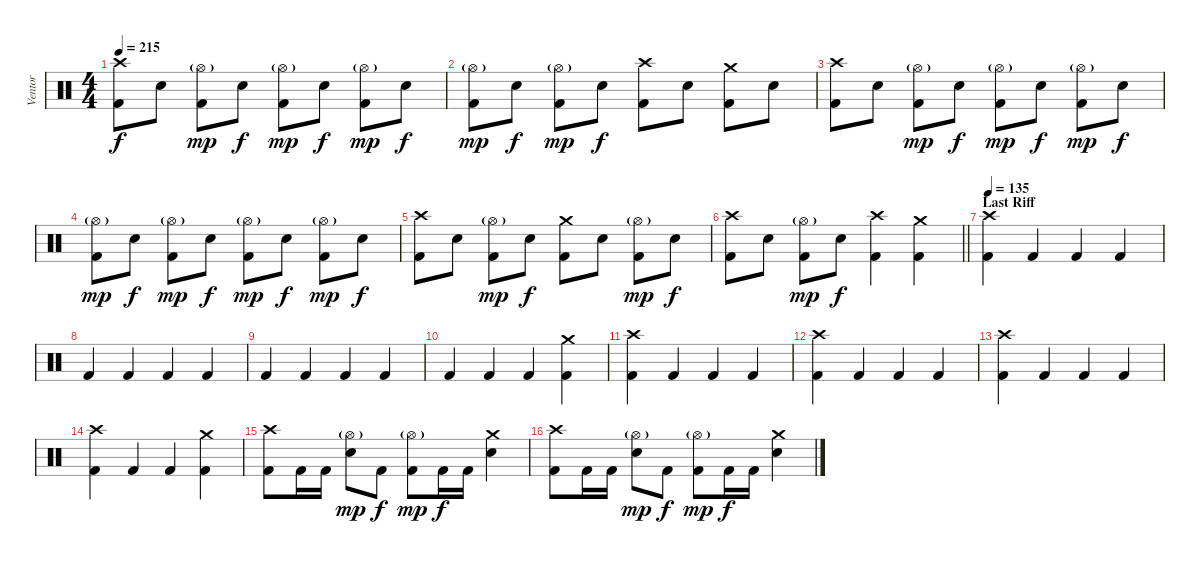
\track ("Ventor" "Ventor") {instrument percussion}
\staff {score}
\articulation defaults
\ts (4 4)
\tempo 215
\clef neutral
\ks c
("Crash high (hit)" "Kick (hit) 2").8{dy f} "Electric Snare (hit)".8 ("Hi-Hat (open)"{g} "Kick (hit) 2").8{dy mp} "Electric Snare (hit)".8{dy f} ("Hi-Hat (open)"{g} "Kick (hit) 2").8{dy mp} "Electric Snare (hit)".8{dy f} ("Hi-Hat (open)"{g} "Kick (hit) 2").8{dy mp} "Electric Snare (hit)".8{dy f} |
("Hi-Hat (open)"{g} "Kick (hit) 2").8{dy mp} "Electric Snare (hit)".8{dy f} ("Hi-Hat (open)"{g} "Kick (hit) 2").8{dy mp} "Electric Snare (hit)".8{dy f} ("Crash high (hit)" "Kick (hit) 2").8 "Electric Snare (hit)".8 ("Crash medium (hit)" "Kick (hit) 2").8 "Electric Snare (hit)".8 |
("Crash high (hit)" "Kick (hit) 2").8 "Electric Snare (hit)".8 ("Hi-Hat (open)"{g} "Kick (hit) 2").8{dy mp} "Electric Snare (hit)".8{dy f} ("Hi-Hat (open)"{g} "Kick (hit) 2").8{dy mp} "Electric Snare (hit)".8{dy f} ("Hi-Hat (open)"{g} "Kick (hit) 2").8{dy mp} "Electric Snare (hit)".8{dy f} |
("Hi-Hat (open)"{g} "Kick (hit) 2").8{dy mp} "Electric Snare (hit)".8{dy f} ("Hi-Hat (open)"{g} "Kick (hit) 2").8{dy mp} "Electric Snare (hit)".8{dy f} ("Hi-Hat (open)"{g} "Kick (hit) 2").8{dy mp} "Electric Snare (hit)".8{dy f} ("Hi-Hat (open)"{g} "Kick (hit) 2").8{dy mp} "Electric Snare (hit)".8{dy f} |
("Crash high (hit)" "Kick (hit) 2").8 "Electric Snare (hit)".8 ("Hi-Hat (open)"{g} "Kick (hit) 2").8{dy mp} "Electric Snare (hit)".8{dy f} ("Crash medium (hit)" "Kick (hit) 2").8 "Electric Snare (hit)".8 ("Hi-Hat (open)"{g} "Kick (hit) 2").8{dy mp} "Electric Snare (hit)".8{dy f} |
\barLineRight lightlight
("Crash high (hit)" "Kick (hit) 2").8 "Electric Snare (hit)".8 ("Hi-Hat (open)"{g} "Kick (hit) 2").8{dy mp} "Electric Snare (hit)".8{dy f} ("Crash high (hit)" "Kick (hit) 2").4 ("Crash medium (hit)" "Kick (hit) 2").4 |
\section ("" "Last Riff")
\tempo 135
("Crash high (hit)" "Kick (hit) 2").4 "Kick (hit) 2".4 "Kick (hit) 2".4 "Kick (hit) 2".4 |
"Kick (hit) 2".4 "Kick (hit) 2".4 "Kick (hit) 2".4 "Kick (hit) 2".4 |
"Kick (hit) 2".4 "Kick (hit) 2".4 "Kick (hit) 2".4 "Kick (hit) 2".4 |
"Kick (hit) 2".4 "Kick (hit) 2".4 "Kick (hit) 2".4 ("Crash medium (hit)" "Kick (hit) 2").4 |
("Crash high (hit)" "Kick (hit) 2").4 "Kick (hit) 2".4 "Kick (hit) 2".4 "Kick (hit) 2".4 |
("Crash high (hit)" "Kick (hit) 2").4 "Kick (hit) 2".4 "Kick (hit) 2".4 "Kick (hit) 2".4 |
("Crash high (hit)" "Kick (hit) 2").4 "Kick (hit) 2".4 "Kick (hit) 2".4 "Kick (hit) 2".4 |
("Crash high (hit)" "Kick (hit) 2").4 "Kick (hit) 2".4 "Kick (hit) 2".4 ("Crash medium (hit)" "Kick (hit) 2").4 |
("Crash high (hit)" "Kick (hit) 2").8 "Kick (hit) 2".16 "Kick (hit) 2".16 ("Hi-Hat (open)"{g} "Electric Snare (hit)").8{dy mp} "Kick (hit) 2".8{dy f} ("Hi-Hat (open)"{g} "Kick (hit) 2").8{dy mp} "Kick (hit) 2".16{dy f} "Kick (hit) 2".16 ("Crash medium (hit)" "Electric Snare (hit)").4 |
("Crash high (hit)" "Kick (hit) 2").8 "Kick (hit) 2".16 "Kick (hit) 2".16 ("Hi-Hat (open)"{g} "Electric Snare (hit)").8{dy mp} "Kick (hit) 2".8{dy f} ("Hi-Hat (open)"{g} "Kick (hit) 2").8{dy mp} "Kick (hit) 2".16{dy f} "Kick (hit) 2".16 ("Crash medium (hit)" "Electric Snare (hit)").4
